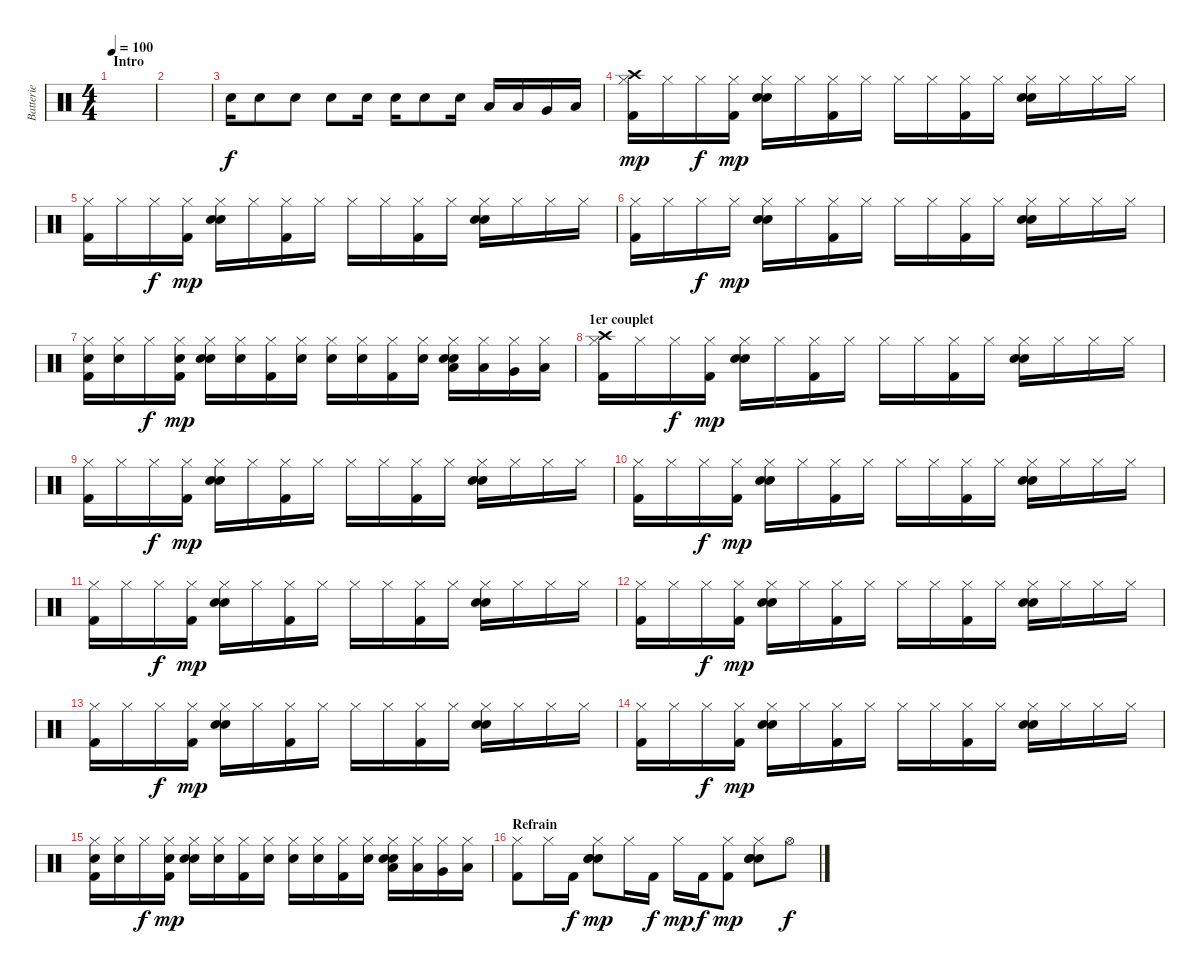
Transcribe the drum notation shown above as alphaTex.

\track ("Batterie" "Batterie") {instrument percussion}
\staff {score}
\articulation defaults
\ts (4 4)
\section ("" "Intro")
\tempo 100
\clef neutral
\ks c
|
|
"Electric Snare (hit)".16 "Electric Snare (hit)".8 "Electric Snare (hit)".8 "Electric Snare (hit)".8 "Electric Snare (hit)".16 "Electric Snare (hit)".16 "Electric Snare (hit)".8 "Electric Snare (hit)".16 "Low Tom (hit)".16 "Low Tom (hit)".16 "Very Low Tom (hit)".16 "Low Floor Tom (hit)".16 |
("Crash high (hit)" "Kick (hit) 2" "Hi-Hat (closed)").16{dy mp} "Hi-Hat (closed)".16 "Hi-Hat (closed)".16{dy f} ("Kick (hit) 2" "Hi-Hat (closed)").16{dy mp} ("Hand Clap (hit)" "Snare (hit) 2" "Hi-Hat (closed)").16 "Hi-Hat (closed)".16 ("Kick (hit) 2" "Hi-Hat (closed)").16 "Hi-Hat (closed)".16 "Hi-Hat (closed)".16 "Hi-Hat (closed)".16 ("Kick (hit) 2" "Hi-Hat (closed)").16 "Hi-Hat (closed)".16 ("Hand Clap (hit)" "Snare (hit) 2" "Hi-Hat (closed)").16 "Hi-Hat (closed)".16 "Hi-Hat (closed)".16 "Hi-Hat (closed)".16 |
("Kick (hit) 2" "Hi-Hat (closed)").16 "Hi-Hat (closed)".16 "Hi-Hat (closed)".16{dy f} ("Kick (hit) 2" "Hi-Hat (closed)").16{dy mp} ("Hand Clap (hit)" "Snare (hit) 2" "Hi-Hat (closed)").16 "Hi-Hat (closed)".16 ("Kick (hit) 2" "Hi-Hat (closed)").16 "Hi-Hat (closed)".16 "Hi-Hat (closed)".16 "Hi-Hat (closed)".16 ("Kick (hit) 2" "Hi-Hat (closed)").16 "Hi-Hat (closed)".16 ("Hand Clap (hit)" "Snare (hit) 2" "Hi-Hat (closed)").16 "Hi-Hat (closed)".16 "Hi-Hat (closed)".16 "Hi-Hat (closed)".16 |
("Kick (hit) 2" "Hi-Hat (closed)").16 "Hi-Hat (closed)".16 "Hi-Hat (closed)".16{dy f} "Hi-Hat (closed)".16{dy mp} ("Hand Clap (hit)" "Snare (hit) 2" "Hi-Hat (closed)").16 "Hi-Hat (closed)".16 ("Kick (hit) 2" "Hi-Hat (closed)").16 "Hi-Hat (closed)".16 "Hi-Hat (closed)".16 "Hi-Hat (closed)".16 ("Kick (hit) 2" "Hi-Hat (closed)").16 "Hi-Hat (closed)".16 ("Hand Clap (hit)" "Snare (hit) 2" "Hi-Hat (closed)").16 "Hi-Hat (closed)".16 "Hi-Hat (closed)".16 "Hi-Hat (closed)".16 |
("Electric Snare (hit)" "Kick (hit) 2" "Hi-Hat (closed)").16 ("Electric Snare (hit)" "Hi-Hat (closed)").16 "Hi-Hat (closed)".16{dy f} ("Electric Snare (hit)" "Kick (hit) 2" "Hi-Hat (closed)").16{dy mp} ("Hand Clap (hit)" "Snare (hit) 2" "Hi-Hat (closed)").16 ("Electric Snare (hit)" "Hi-Hat (closed)").16 ("Kick (hit) 2" "Hi-Hat (closed)").16 ("Electric Snare (hit)" "Hi-Hat (closed)").16 ("Electric Snare (hit)" "Hi-Hat (closed)").16 ("Electric Snare (hit)" "Hi-Hat (closed)").16 ("Kick (hit) 2" "Hi-Hat (closed)").16 ("Electric Snare (hit)" "Hi-Hat (closed)").16 ("Low Tom (hit)" "Snare (hit) 2" "Hand Clap (hit)" "Hi-Hat (closed)").16 ("Low Tom (hit)" "Hi-Hat (closed)").16 ("Very Low Tom (hit)" "Hi-Hat (closed)").16 ("Low Floor Tom (hit)" "Hi-Hat (closed)").16 |
\section ("" "1er couplet")
("Crash high (hit)" "Kick (hit) 2" "Hi-Hat (closed)").16 "Hi-Hat (closed)".16 "Hi-Hat (closed)".16{dy f} ("Kick (hit) 2" "Hi-Hat (closed)").16{dy mp} ("Hand Clap (hit)" "Snare (hit) 2" "Hi-Hat (closed)").16 "Hi-Hat (closed)".16 ("Kick (hit) 2" "Hi-Hat (closed)").16 "Hi-Hat (closed)".16 "Hi-Hat (closed)".16 "Hi-Hat (closed)".16 ("Kick (hit) 2" "Hi-Hat (closed)").16 "Hi-Hat (closed)".16 ("Hand Clap (hit)" "Snare (hit) 2" "Hi-Hat (closed)").16 "Hi-Hat (closed)".16 "Hi-Hat (closed)".16 "Hi-Hat (closed)".16 |
("Kick (hit) 2" "Hi-Hat (closed)").16 "Hi-Hat (closed)".16 "Hi-Hat (closed)".16{dy f} ("Kick (hit) 2" "Hi-Hat (closed)").16{dy mp} ("Hand Clap (hit)" "Snare (hit) 2" "Hi-Hat (closed)").16 "Hi-Hat (closed)".16 ("Kick (hit) 2" "Hi-Hat (closed)").16 "Hi-Hat (closed)".16 "Hi-Hat (closed)".16 "Hi-Hat (closed)".16 ("Kick (hit) 2" "Hi-Hat (closed)").16 "Hi-Hat (closed)".16 ("Hand Clap (hit)" "Snare (hit) 2" "Hi-Hat (closed)").16 "Hi-Hat (closed)".16 "Hi-Hat (closed)".16 "Hi-Hat (closed)".16 |
("Kick (hit) 2" "Hi-Hat (closed)").16 "Hi-Hat (closed)".16 "Hi-Hat (closed)".16{dy f} ("Kick (hit) 2" "Hi-Hat (closed)").16{dy mp} ("Hand Clap (hit)" "Snare (hit) 2" "Hi-Hat (closed)").16 "Hi-Hat (closed)".16 ("Kick (hit) 2" "Hi-Hat (closed)").16 "Hi-Hat (closed)".16 "Hi-Hat (closed)".16 "Hi-Hat (closed)".16 ("Kick (hit) 2" "Hi-Hat (closed)").16 "Hi-Hat (closed)".16 ("Hand Clap (hit)" "Snare (hit) 2" "Hi-Hat (closed)").16 "Hi-Hat (closed)".16 "Hi-Hat (closed)".16 "Hi-Hat (closed)".16 |
("Kick (hit) 2" "Hi-Hat (closed)").16 "Hi-Hat (closed)".16 "Hi-Hat (closed)".16{dy f} ("Kick (hit) 2" "Hi-Hat (closed)").16{dy mp} ("Hand Clap (hit)" "Snare (hit) 2" "Hi-Hat (closed)").16 "Hi-Hat (closed)".16 ("Kick (hit) 2" "Hi-Hat (closed)").16 "Hi-Hat (closed)".16 "Hi-Hat (closed)".16 "Hi-Hat (closed)".16 ("Kick (hit) 2" "Hi-Hat (closed)").16 "Hi-Hat (closed)".16 ("Hand Clap (hit)" "Snare (hit) 2" "Hi-Hat (closed)").16 "Hi-Hat (closed)".16 "Hi-Hat (closed)".16 "Hi-Hat (closed)".16 |
("Kick (hit) 2" "Hi-Hat (closed)").16 "Hi-Hat (closed)".16 "Hi-Hat (closed)".16{dy f} ("Kick (hit) 2" "Hi-Hat (closed)").16{dy mp} ("Hand Clap (hit)" "Snare (hit) 2" "Hi-Hat (closed)").16 "Hi-Hat (closed)".16 ("Kick (hit) 2" "Hi-Hat (closed)").16 "Hi-Hat (closed)".16 "Hi-Hat (closed)".16 "Hi-Hat (closed)".16 ("Kick (hit) 2" "Hi-Hat (closed)").16 "Hi-Hat (closed)".16 ("Hand Clap (hit)" "Snare (hit) 2" "Hi-Hat (closed)").16 "Hi-Hat (closed)".16 "Hi-Hat (closed)".16 "Hi-Hat (closed)".16 |
("Kick (hit) 2" "Hi-Hat (closed)").16 "Hi-Hat (closed)".16 "Hi-Hat (closed)".16{dy f} ("Kick (hit) 2" "Hi-Hat (closed)").16{dy mp} ("Hand Clap (hit)" "Snare (hit) 2" "Hi-Hat (closed)").16 "Hi-Hat (closed)".16 ("Kick (hit) 2" "Hi-Hat (closed)").16 "Hi-Hat (closed)".16 "Hi-Hat (closed)".16 "Hi-Hat (closed)".16 ("Kick (hit) 2" "Hi-Hat (closed)").16 "Hi-Hat (closed)".16 ("Hand Clap (hit)" "Snare (hit) 2" "Hi-Hat (closed)").16 "Hi-Hat (closed)".16 "Hi-Hat (closed)".16 "Hi-Hat (closed)".16 |
("Kick (hit) 2" "Hi-Hat (closed)").16 "Hi-Hat (closed)".16 "Hi-Hat (closed)".16{dy f} ("Kick (hit) 2" "Hi-Hat (closed)").16{dy mp} ("Hand Clap (hit)" "Snare (hit) 2" "Hi-Hat (closed)").16 "Hi-Hat (closed)".16 ("Kick (hit) 2" "Hi-Hat (closed)").16 "Hi-Hat (closed)".16 "Hi-Hat (closed)".16 "Hi-Hat (closed)".16 ("Kick (hit) 2" "Hi-Hat (closed)").16 "Hi-Hat (closed)".16 ("Hand Clap (hit)" "Snare (hit) 2" "Hi-Hat (closed)").16 "Hi-Hat (closed)".16 "Hi-Hat (closed)".16 "Hi-Hat (closed)".16 |
("Electric Snare (hit)" "Kick (hit) 2" "Hi-Hat (closed)").16 ("Electric Snare (hit)" "Hi-Hat (closed)").16 "Hi-Hat (closed)".16{dy f} ("Electric Snare (hit)" "Kick (hit) 2" "Hi-Hat (closed)").16{dy mp} ("Hand Clap (hit)" "Snare (hit) 2" "Hi-Hat (closed)").16 ("Electric Snare (hit)" "Hi-Hat (closed)").16 ("Kick (hit) 2" "Hi-Hat (closed)").16 ("Electric Snare (hit)" "Hi-Hat (closed)").16 ("Electric Snare (hit)" "Hi-Hat (closed)").16 ("Electric Snare (hit)" "Hi-Hat (closed)").16 ("Kick (hit) 2" "Hi-Hat (closed)").16 ("Electric Snare (hit)" "Hi-Hat (closed)").16 ("Low Tom (hit)" "Snare (hit) 2" "Hand Clap (hit)" "Hi-Hat (closed)").16 ("Low Tom (hit)" "Hi-Hat (closed)").16 ("Very Low Tom (hit)" "Hi-Hat (closed)").16 ("Low Floor Tom (hit)" "Hi-Hat (closed)").16 |
\section ("" "Refrain")
("Kick (hit) 2" "Hi-Hat (closed)").8 "Hi-Hat (closed)".16 "Kick (hit) 2".16{dy f} ("Snare (hit) 2" "Snare (hit) 2" "Electric Snare (hit)" "Hi-Hat (closed)").8{dy mp} "Hi-Hat (closed)".16 "Kick (hit) 2".16{dy f} "Hi-Hat (closed)".16{dy mp} "Kick (hit) 2".16{dy f} ("Kick (hit) 2" "Hi-Hat (closed)").8{dy mp} ("Snare (hit) 2" "Snare (hit) 2" "Electric Snare (hit)" "Hi-Hat (closed)").8 "Hi-Hat (open)".8{dy f}
